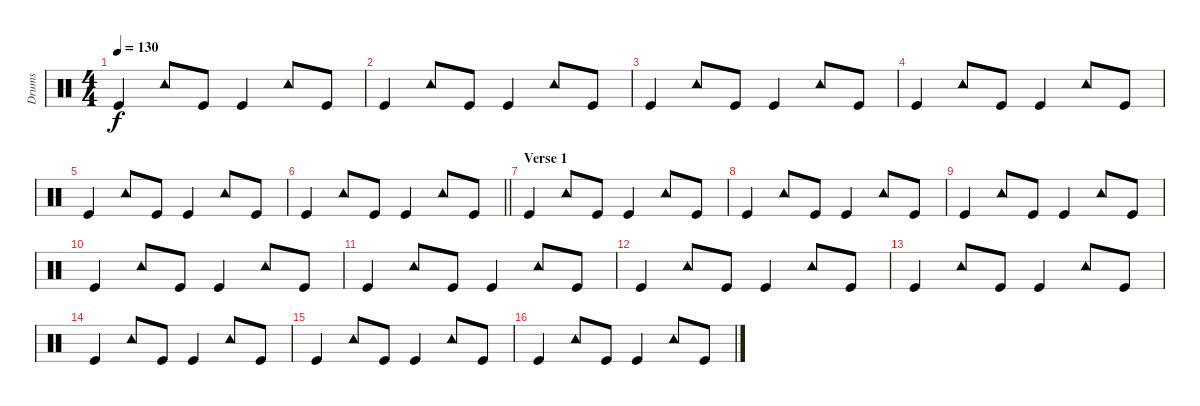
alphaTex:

\track ("Drums" "Drums") {instrument percussion}
\staff {score}
\articulation defaults
\ts (4 4)
\tempo 130
\clef neutral
\ks c "Kick (hit)".4{dy f} "Tambourine (hit)".8 "Kick (hit)".8 "Kick (hit)".4 "Tambourine (hit)".8 "Kick (hit)".8
|
"Kick (hit)".4 "Tambourine (hit)".8 "Kick (hit)".8 "Kick (hit)".4 "Tambourine (hit)".8 "Kick (hit)".8 |
"Kick (hit)".4 "Tambourine (hit)".8 "Kick (hit)".8 "Kick (hit)".4 "Tambourine (hit)".8 "Kick (hit)".8 |
"Kick (hit)".4 "Tambourine (hit)".8 "Kick (hit)".8 "Kick (hit)".4 "Tambourine (hit)".8 "Kick (hit)".8 |
"Kick (hit)".4 "Tambourine (hit)".8 "Kick (hit)".8 "Kick (hit)".4 "Tambourine (hit)".8 "Kick (hit)".8 |
\barLineRight lightlight "Kick (hit)".4 "Tambourine (hit)".8 "Kick (hit)".8 "Kick (hit)".4 "Tambourine (hit)".8 "Kick (hit)".8
|
\section ("" "Verse 1")
"Kick (hit)".4 "Tambourine (hit)".8 "Kick (hit)".8 "Kick (hit)".4 "Tambourine (hit)".8 "Kick (hit)".8 |
"Kick (hit)".4 "Tambourine (hit)".8 "Kick (hit)".8 "Kick (hit)".4 "Tambourine (hit)".8 "Kick (hit)".8 |
"Kick (hit)".4 "Tambourine (hit)".8 "Kick (hit)".8 "Kick (hit)".4 "Tambourine (hit)".8 "Kick (hit)".8 |
"Kick (hit)".4 "Tambourine (hit)".8 "Kick (hit)".8 "Kick (hit)".4 "Tambourine (hit)".8 "Kick (hit)".8 |
"Kick (hit)".4 "Tambourine (hit)".8 "Kick (hit)".8 "Kick (hit)".4 "Tambourine (hit)".8 "Kick (hit)".8 |
"Kick (hit)".4 "Tambourine (hit)".8 "Kick (hit)".8 "Kick (hit)".4 "Tambourine (hit)".8 "Kick (hit)".8 |
"Kick (hit)".4 "Tambourine (hit)".8 "Kick (hit)".8 "Kick (hit)".4 "Tambourine (hit)".8 "Kick (hit)".8 |
"Kick (hit)".4 "Tambourine (hit)".8 "Kick (hit)".8 "Kick (hit)".4 "Tambourine (hit)".8 "Kick (hit)".8 |
"Kick (hit)".4 "Tambourine (hit)".8 "Kick (hit)".8 "Kick (hit)".4 "Tambourine (hit)".8 "Kick (hit)".8 |
"Kick (hit)".4 "Tambourine (hit)".8 "Kick (hit)".8 "Kick (hit)".4 "Tambourine (hit)".8 "Kick (hit)".8
